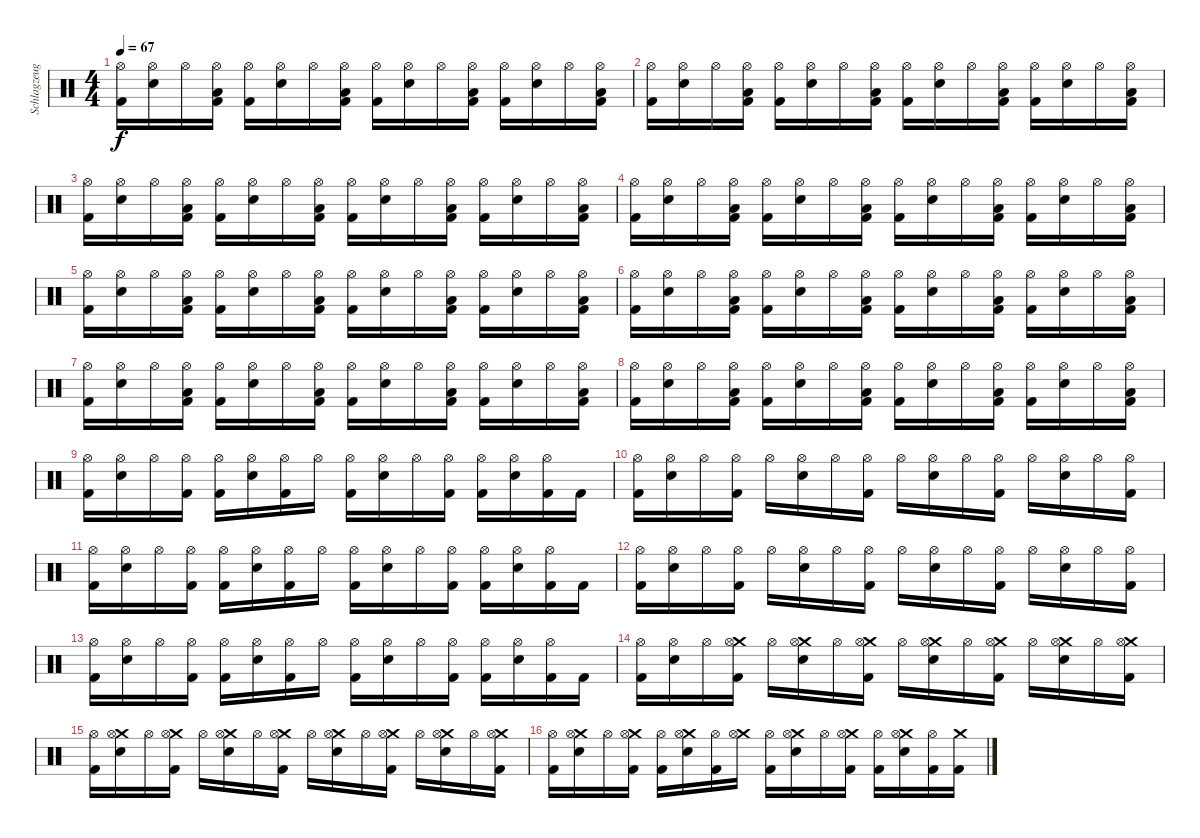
\track ("Schlagzeug" "Schlagzeug") {instrument percussion}
\staff {score}
\articulation defaults
\ts (4 4)
\tempo 67
\clef neutral
\ks c
("Hi-Hat (open)" "Kick (hit) 2").16{dy f} ("Hi-Hat (open)" "Snare (hit) 2").16 "Hi-Hat (open)".16 ("Hi-Hat (open)" "Low Tom (hit)" "Kick (hit) 2").16 ("Hi-Hat (open)" "Kick (hit) 2").16 ("Hi-Hat (open)" "Snare (hit) 2").16 "Hi-Hat (open)".16 ("Hi-Hat (open)" "Low Tom (hit)" "Kick (hit) 2").16 ("Hi-Hat (open)" "Kick (hit) 2").16 ("Hi-Hat (open)" "Snare (hit) 2").16 "Hi-Hat (open)".16 ("Hi-Hat (open)" "Low Tom (hit)" "Kick (hit) 2").16 ("Hi-Hat (open)" "Kick (hit) 2").16 ("Hi-Hat (open)" "Snare (hit) 2").16 "Hi-Hat (open)".16 ("Hi-Hat (open)" "Low Tom (hit)" "Kick (hit) 2").16 |
("Hi-Hat (open)" "Kick (hit) 2").16 ("Hi-Hat (open)" "Snare (hit) 2").16 "Hi-Hat (open)".16 ("Hi-Hat (open)" "Low Tom (hit)" "Kick (hit) 2").16 ("Hi-Hat (open)" "Kick (hit) 2").16 ("Hi-Hat (open)" "Snare (hit) 2").16 "Hi-Hat (open)".16 ("Hi-Hat (open)" "Low Tom (hit)" "Kick (hit) 2").16 ("Hi-Hat (open)" "Kick (hit) 2").16 ("Hi-Hat (open)" "Snare (hit) 2").16 "Hi-Hat (open)".16 ("Hi-Hat (open)" "Low Tom (hit)" "Kick (hit) 2").16 ("Hi-Hat (open)" "Kick (hit) 2").16 ("Hi-Hat (open)" "Snare (hit) 2").16 "Hi-Hat (open)".16 ("Hi-Hat (open)" "Low Tom (hit)" "Kick (hit) 2").16 |
("Hi-Hat (open)" "Kick (hit) 2").16 ("Hi-Hat (open)" "Snare (hit) 2").16 "Hi-Hat (open)".16 ("Hi-Hat (open)" "Low Tom (hit)" "Kick (hit) 2").16 ("Hi-Hat (open)" "Kick (hit) 2").16 ("Hi-Hat (open)" "Snare (hit) 2").16 "Hi-Hat (open)".16 ("Hi-Hat (open)" "Low Tom (hit)" "Kick (hit) 2").16 ("Hi-Hat (open)" "Kick (hit) 2").16 ("Hi-Hat (open)" "Snare (hit) 2").16 "Hi-Hat (open)".16 ("Hi-Hat (open)" "Low Tom (hit)" "Kick (hit) 2").16 ("Hi-Hat (open)" "Kick (hit) 2").16 ("Hi-Hat (open)" "Snare (hit) 2").16 "Hi-Hat (open)".16 ("Hi-Hat (open)" "Low Tom (hit)" "Kick (hit) 2").16 |
("Hi-Hat (open)" "Kick (hit) 2").16 ("Hi-Hat (open)" "Snare (hit) 2").16 "Hi-Hat (open)".16 ("Hi-Hat (open)" "Low Tom (hit)" "Kick (hit) 2").16 ("Hi-Hat (open)" "Kick (hit) 2").16 ("Hi-Hat (open)" "Snare (hit) 2").16 "Hi-Hat (open)".16 ("Hi-Hat (open)" "Low Tom (hit)" "Kick (hit) 2").16 ("Hi-Hat (open)" "Kick (hit) 2").16 ("Hi-Hat (open)" "Snare (hit) 2").16 "Hi-Hat (open)".16 ("Hi-Hat (open)" "Low Tom (hit)" "Kick (hit) 2").16 ("Hi-Hat (open)" "Kick (hit) 2").16 ("Hi-Hat (open)" "Snare (hit) 2").16 "Hi-Hat (open)".16 ("Hi-Hat (open)" "Low Tom (hit)" "Kick (hit) 2").16 |
("Hi-Hat (open)" "Kick (hit) 2").16 ("Hi-Hat (open)" "Snare (hit) 2").16 "Hi-Hat (open)".16 ("Hi-Hat (open)" "Low Tom (hit)" "Kick (hit) 2").16 ("Hi-Hat (open)" "Kick (hit) 2").16 ("Hi-Hat (open)" "Snare (hit) 2").16 "Hi-Hat (open)".16 ("Hi-Hat (open)" "Low Tom (hit)" "Kick (hit) 2").16 ("Hi-Hat (open)" "Kick (hit) 2").16 ("Hi-Hat (open)" "Snare (hit) 2").16 "Hi-Hat (open)".16 ("Hi-Hat (open)" "Low Tom (hit)" "Kick (hit) 2").16 ("Hi-Hat (open)" "Kick (hit) 2").16 ("Hi-Hat (open)" "Snare (hit) 2").16 "Hi-Hat (open)".16 ("Hi-Hat (open)" "Low Tom (hit)" "Kick (hit) 2").16 |
("Hi-Hat (open)" "Kick (hit) 2").16 ("Hi-Hat (open)" "Snare (hit) 2").16 "Hi-Hat (open)".16 ("Hi-Hat (open)" "Low Tom (hit)" "Kick (hit) 2").16 ("Hi-Hat (open)" "Kick (hit) 2").16 ("Hi-Hat (open)" "Snare (hit) 2").16 "Hi-Hat (open)".16 ("Hi-Hat (open)" "Low Tom (hit)" "Kick (hit) 2").16 ("Hi-Hat (open)" "Kick (hit) 2").16 ("Hi-Hat (open)" "Snare (hit) 2").16 "Hi-Hat (open)".16 ("Hi-Hat (open)" "Low Tom (hit)" "Kick (hit) 2").16 ("Hi-Hat (open)" "Kick (hit) 2").16 ("Hi-Hat (open)" "Snare (hit) 2").16 "Hi-Hat (open)".16 ("Hi-Hat (open)" "Low Tom (hit)" "Kick (hit) 2").16 |
("Hi-Hat (open)" "Kick (hit) 2").16 ("Hi-Hat (open)" "Snare (hit) 2").16 "Hi-Hat (open)".16 ("Hi-Hat (open)" "Low Tom (hit)" "Kick (hit) 2").16 ("Hi-Hat (open)" "Kick (hit) 2").16 ("Hi-Hat (open)" "Snare (hit) 2").16 "Hi-Hat (open)".16 ("Hi-Hat (open)" "Low Tom (hit)" "Kick (hit) 2").16 ("Hi-Hat (open)" "Kick (hit) 2").16 ("Hi-Hat (open)" "Snare (hit) 2").16 "Hi-Hat (open)".16 ("Hi-Hat (open)" "Low Tom (hit)" "Kick (hit) 2").16 ("Hi-Hat (open)" "Kick (hit) 2").16 ("Hi-Hat (open)" "Snare (hit) 2").16 "Hi-Hat (open)".16 ("Hi-Hat (open)" "Low Tom (hit)" "Kick (hit) 2").16 |
("Hi-Hat (open)" "Kick (hit) 2").16 ("Hi-Hat (open)" "Snare (hit) 2").16 "Hi-Hat (open)".16 ("Hi-Hat (open)" "Low Tom (hit)" "Kick (hit) 2").16 ("Hi-Hat (open)" "Kick (hit) 2").16 ("Hi-Hat (open)" "Snare (hit) 2").16 "Hi-Hat (open)".16 ("Hi-Hat (open)" "Low Tom (hit)" "Kick (hit) 2").16 ("Hi-Hat (open)" "Kick (hit) 2").16 ("Hi-Hat (open)" "Snare (hit) 2").16 "Hi-Hat (open)".16 ("Hi-Hat (open)" "Low Tom (hit)" "Kick (hit) 2").16 ("Hi-Hat (open)" "Kick (hit) 2").16 ("Hi-Hat (open)" "Snare (hit) 2").16 "Hi-Hat (open)".16 ("Hi-Hat (open)" "Low Tom (hit)" "Kick (hit) 2").16 |
("Hi-Hat (open)" "Kick (hit) 2").16 ("Hi-Hat (open)" "Snare (hit) 2").16 "Hi-Hat (open)".16 ("Hi-Hat (open)" "Kick (hit) 2").16 ("Hi-Hat (open)" "Kick (hit) 2").16 ("Hi-Hat (open)" "Snare (hit) 2").16 ("Hi-Hat (open)" "Kick (hit) 2").16 "Hi-Hat (open)".16 ("Hi-Hat (open)" "Kick (hit) 2").16 ("Hi-Hat (open)" "Snare (hit) 2").16 "Hi-Hat (open)".16 ("Hi-Hat (open)" "Kick (hit) 2").16 ("Hi-Hat (open)" "Kick (hit) 2").16 ("Hi-Hat (open)" "Snare (hit) 2").16 ("Hi-Hat (open)" "Kick (hit) 2").16 "Kick (hit) 2".16 |
("Hi-Hat (open)" "Kick (hit) 2").16 ("Hi-Hat (open)" "Snare (hit) 2").16 "Hi-Hat (open)".16 ("Hi-Hat (open)" "Kick (hit) 2").16 "Hi-Hat (open)".16 ("Hi-Hat (open)" "Snare (hit) 2").16 "Hi-Hat (open)".16 ("Hi-Hat (open)" "Kick (hit) 2").16 "Hi-Hat (open)".16 ("Hi-Hat (open)" "Snare (hit) 2").16 "Hi-Hat (open)".16 ("Hi-Hat (open)" "Kick (hit) 2").16 "Hi-Hat (open)".16 ("Hi-Hat (open)" "Snare (hit) 2").16 "Hi-Hat (open)".16 ("Hi-Hat (open)" "Kick (hit) 2").16 |
("Hi-Hat (open)" "Kick (hit) 2").16 ("Hi-Hat (open)" "Snare (hit) 2").16 "Hi-Hat (open)".16 ("Hi-Hat (open)" "Kick (hit) 2").16 ("Hi-Hat (open)" "Kick (hit) 2").16 ("Hi-Hat (open)" "Snare (hit) 2").16 ("Hi-Hat (open)" "Kick (hit) 2").16 "Hi-Hat (open)".16 ("Hi-Hat (open)" "Kick (hit) 2").16 ("Hi-Hat (open)" "Snare (hit) 2").16 "Hi-Hat (open)".16 ("Hi-Hat (open)" "Kick (hit) 2").16 ("Hi-Hat (open)" "Kick (hit) 2").16 ("Hi-Hat (open)" "Snare (hit) 2").16 ("Hi-Hat (open)" "Kick (hit) 2").16 "Kick (hit) 2".16 |
("Hi-Hat (open)" "Kick (hit) 2").16 ("Hi-Hat (open)" "Snare (hit) 2").16 "Hi-Hat (open)".16 ("Hi-Hat (open)" "Kick (hit) 2").16 "Hi-Hat (open)".16 ("Hi-Hat (open)" "Snare (hit) 2").16 "Hi-Hat (open)".16 ("Hi-Hat (open)" "Kick (hit) 2").16 "Hi-Hat (open)".16 ("Hi-Hat (open)" "Snare (hit) 2").16 "Hi-Hat (open)".16 ("Hi-Hat (open)" "Kick (hit) 2").16 "Hi-Hat (open)".16 ("Hi-Hat (open)" "Snare (hit) 2").16 "Hi-Hat (open)".16 ("Hi-Hat (open)" "Kick (hit) 2").16 |
("Hi-Hat (open)" "Kick (hit) 2").16 ("Hi-Hat (open)" "Snare (hit) 2").16 "Hi-Hat (open)".16 ("Hi-Hat (open)" "Kick (hit) 2").16 ("Hi-Hat (open)" "Kick (hit) 2").16 ("Hi-Hat (open)" "Snare (hit) 2").16 ("Hi-Hat (open)" "Kick (hit) 2").16 "Hi-Hat (open)".16 ("Hi-Hat (open)" "Kick (hit) 2").16 ("Hi-Hat (open)" "Snare (hit) 2").16 "Hi-Hat (open)".16 ("Hi-Hat (open)" "Kick (hit) 2").16 ("Hi-Hat (open)" "Kick (hit) 2").16 ("Hi-Hat (open)" "Snare (hit) 2").16 ("Hi-Hat (open)" "Kick (hit) 2").16 "Kick (hit) 2".16 |
("Hi-Hat (open)" "Kick (hit) 2").16 ("Hi-Hat (open)" "Snare (hit) 2").16 "Hi-Hat (open)".16 ("Crash medium (hit)" "Hi-Hat (open)" "Kick (hit) 2").16 "Hi-Hat (open)".16 ("Crash medium (hit)" "Hi-Hat (open)" "Snare (hit) 2").16 "Hi-Hat (open)".16 ("Crash medium (hit)" "Hi-Hat (open)" "Kick (hit) 2").16 "Hi-Hat (open)".16 ("Crash medium (hit)" "Hi-Hat (open)" "Snare (hit) 2").16 "Hi-Hat (open)".16 ("Crash medium (hit)" "Hi-Hat (open)" "Kick (hit) 2").16 "Hi-Hat (open)".16 ("Crash medium (hit)" "Hi-Hat (open)" "Snare (hit) 2").16 "Hi-Hat (open)".16 ("Crash medium (hit)" "Hi-Hat (open)" "Kick (hit) 2").16 |
("Hi-Hat (open)" "Kick (hit) 2").16 ("Crash medium (hit)" "Hi-Hat (open)" "Snare (hit) 2").16 "Hi-Hat (open)".16 ("Crash medium (hit)" "Hi-Hat (open)" "Kick (hit) 2").16 "Hi-Hat (open)".16 ("Crash medium (hit)" "Hi-Hat (open)" "Snare (hit) 2").16 "Hi-Hat (open)".16 ("Crash medium (hit)" "Hi-Hat (open)" "Kick (hit) 2").16 "Hi-Hat (open)".16 ("Crash medium (hit)" "Hi-Hat (open)" "Snare (hit) 2").16 "Hi-Hat (open)".16 ("Crash medium (hit)" "Hi-Hat (open)" "Kick (hit) 2").16 "Hi-Hat (open)".16 ("Crash medium (hit)" "Hi-Hat (open)" "Snare (hit) 2").16 "Hi-Hat (open)".16 ("Crash medium (hit)" "Hi-Hat (open)" "Kick (hit) 2").16 |
("Hi-Hat (open)" "Kick (hit) 2").16 ("Crash medium (hit)" "Hi-Hat (open)" "Snare (hit) 2").16 "Hi-Hat (open)".16 ("Crash medium (hit)" "Hi-Hat (open)" "Kick (hit) 2").16 ("Hi-Hat (open)" "Kick (hit) 2").16 ("Crash medium (hit)" "Hi-Hat (open)" "Snare (hit) 2").16 ("Hi-Hat (open)" "Kick (hit) 2").16 ("Crash medium (hit)" "Hi-Hat (open)").16 ("Hi-Hat (open)" "Kick (hit) 2").16 ("Crash medium (hit)" "Hi-Hat (open)" "Snare (hit) 2").16 "Hi-Hat (open)".16 ("Crash medium (hit)" "Hi-Hat (open)" "Kick (hit) 2").16 ("Hi-Hat (open)" "Kick (hit) 2").16 ("Crash medium (hit)" "Hi-Hat (open)" "Snare (hit) 2").16 ("Hi-Hat (open)" "Kick (hit) 2").16 ("Crash medium (hit)" "Kick (hit) 2").16
